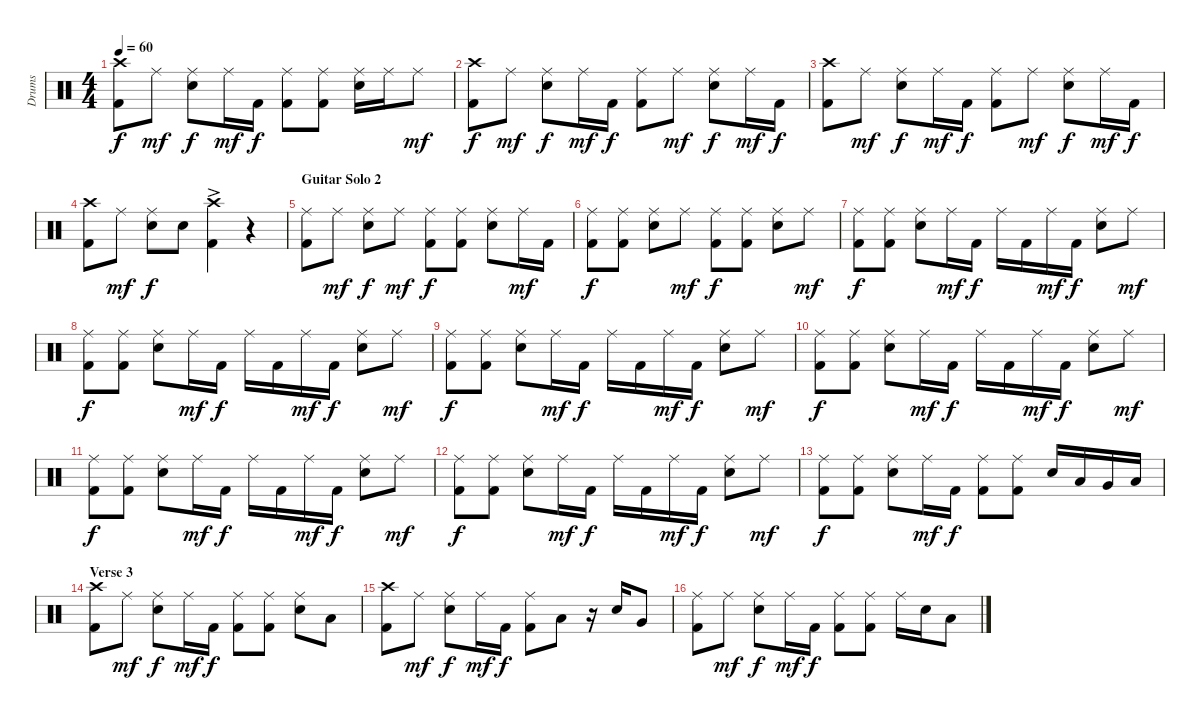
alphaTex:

\track ("Drums" "Drums") {instrument percussion}
\staff {score}
\articulation defaults
\ts (4 4)
\tempo 60
\clef neutral
\ks c
("Crash high (hit)" "Kick (hit) 2").8{dy f} "Ride (middle)".8{dy mf} ("Ride (middle)" "Electric Snare (hit)").8{dy f} "Ride (middle)".16{dy mf} "Kick (hit) 2".16{dy f} ("Ride (middle)" "Kick (hit) 2").8 ("Ride (middle)" "Kick (hit) 2").8 ("Ride (middle)" "Electric Snare (hit)").16 "Ride (middle)".16 "Ride (middle)".8{dy mf} |
("Crash high (hit)" "Kick (hit) 2").8{dy f} "Ride (middle)".8{dy mf} ("Ride (middle)" "Electric Snare (hit)").8{dy f} "Ride (middle)".16{dy mf} "Kick (hit) 2".16{dy f} ("Ride (middle)" "Kick (hit) 2").8 "Ride (middle)".8{dy mf} ("Ride (middle)" "Electric Snare (hit)").8{dy f} "Ride (middle)".16{dy mf} "Kick (hit) 2".16{dy f} |
("Crash high (hit)" "Kick (hit) 2").8 "Ride (middle)".8{dy mf} ("Ride (middle)" "Electric Snare (hit)").8{dy f} "Ride (middle)".16{dy mf} "Kick (hit) 2".16{dy f} ("Ride (middle)" "Kick (hit) 2").8 "Ride (middle)".8{dy mf} ("Ride (middle)" "Electric Snare (hit)").8{dy f} "Ride (middle)".16{dy mf} "Kick (hit) 2".16{dy f} |
("Crash high (hit)" "Kick (hit) 2").8 "Ride (middle)".8{dy mf} ("Ride (middle)" "Electric Snare (hit)").8{dy f} "Electric Snare (hit)".8 ("Crash high (hit)"{ac} "Kick (hit) 2").4 r.4 |
\section ("" "Guitar Solo 2")
("Ride (middle)" "Kick (hit) 2").8 "Ride (middle)".8{dy mf} ("Ride (middle)" "Electric Snare (hit)").8{dy f} "Ride (middle)".8{dy mf} ("Ride (middle)" "Kick (hit) 2").8{dy f} ("Ride (middle)" "Kick (hit) 2").8 ("Ride (middle)" "Electric Snare (hit)").8 "Ride (middle)".16{dy mf} "Kick (hit) 2".16 |
("Ride (middle)" "Kick (hit) 2").8{dy f} ("Ride (middle)" "Kick (hit) 2").8 ("Ride (middle)" "Electric Snare (hit)").8 "Ride (middle)".8{dy mf} ("Ride (middle)" "Kick (hit) 2").8{dy f} ("Ride (middle)" "Kick (hit) 2").8 ("Ride (middle)" "Electric Snare (hit)").8 "Ride (middle)".8{dy mf} |
("Ride (middle)" "Kick (hit) 2").8{dy f} ("Ride (middle)" "Kick (hit) 2").8 ("Ride (middle)" "Electric Snare (hit)").8 "Ride (middle)".16{dy mf} "Kick (hit) 2".16{dy f} "Ride (middle)".16 "Kick (hit) 2".16 "Ride (middle)".16{dy mf} "Kick (hit) 2".16{dy f} ("Ride (middle)" "Electric Snare (hit)").8 "Ride (middle)".8{dy mf} |
("Ride (middle)" "Kick (hit) 2").8{dy f} ("Ride (middle)" "Kick (hit) 2").8 ("Ride (middle)" "Electric Snare (hit)").8 "Ride (middle)".16{dy mf} "Kick (hit) 2".16{dy f} "Ride (middle)".16 "Kick (hit) 2".16 "Ride (middle)".16{dy mf} "Kick (hit) 2".16{dy f} ("Ride (middle)" "Electric Snare (hit)").8 "Ride (middle)".8{dy mf} |
("Ride (middle)" "Kick (hit) 2").8{dy f} ("Ride (middle)" "Kick (hit) 2").8 ("Ride (middle)" "Electric Snare (hit)").8 "Ride (middle)".16{dy mf} "Kick (hit) 2".16{dy f} "Ride (middle)".16 "Kick (hit) 2".16 "Ride (middle)".16{dy mf} "Kick (hit) 2".16{dy f} ("Ride (middle)" "Electric Snare (hit)").8 "Ride (middle)".8{dy mf} |
("Ride (middle)" "Kick (hit) 2").8{dy f} ("Ride (middle)" "Kick (hit) 2").8 ("Ride (middle)" "Electric Snare (hit)").8 "Ride (middle)".16{dy mf} "Kick (hit) 2".16{dy f} "Ride (middle)".16 "Kick (hit) 2".16 "Ride (middle)".16{dy mf} "Kick (hit) 2".16{dy f} ("Ride (middle)" "Electric Snare (hit)").8 "Ride (middle)".8{dy mf} |
("Ride (middle)" "Kick (hit) 2").8{dy f} ("Ride (middle)" "Kick (hit) 2").8 ("Ride (middle)" "Electric Snare (hit)").8 "Ride (middle)".16{dy mf} "Kick (hit) 2".16{dy f} "Ride (middle)".16 "Kick (hit) 2".16 "Ride (middle)".16{dy mf} "Kick (hit) 2".16{dy f} ("Ride (middle)" "Electric Snare (hit)").8 "Ride (middle)".8{dy mf} |
("Ride (middle)" "Kick (hit) 2").8{dy f} ("Ride (middle)" "Kick (hit) 2").8 ("Ride (middle)" "Electric Snare (hit)").8 "Ride (middle)".16{dy mf} "Kick (hit) 2".16{dy f} "Ride (middle)".16 "Kick (hit) 2".16 "Ride (middle)".16{dy mf} "Kick (hit) 2".16{dy f} ("Ride (middle)" "Electric Snare (hit)").8 "Ride (middle)".8{dy mf} |
("Ride (middle)" "Kick (hit) 2").8{dy f} ("Ride (middle)" "Kick (hit) 2").8 ("Ride (middle)" "Electric Snare (hit)").8 "Ride (middle)".16{dy mf} "Kick (hit) 2".16{dy f} ("Ride (middle)" "Kick (hit) 2").8 ("Ride (middle)" "Kick (hit) 2").8 "Electric Snare (hit)".16 "Low Tom (hit)".16 "Very Low Tom (hit)".16 "Low Floor Tom (hit)".16 |
\section ("" "Verse 3")
("Crash high (hit)" "Kick (hit) 2").8 "Ride (middle)".8{dy mf} ("Ride (middle)" "Electric Snare (hit)").8{dy f} "Ride (middle)".16{dy mf} "Kick (hit) 2".16{dy f} ("Ride (middle)" "Kick (hit) 2").8 ("Ride (middle)" "Kick (hit) 2").8 ("Ride (middle)" "Electric Snare (hit)").8 "Low Tom (hit)".8 |
("Crash high (hit)" "Kick (hit) 2").8 "Ride (middle)".8{dy mf} ("Ride (middle)" "Electric Snare (hit)").8{dy f} "Ride (middle)".16{dy mf} "Kick (hit) 2".16{dy f} ("Ride (middle)" "Kick (hit) 2").8 "Low Tom (hit)".8 r.16 "Electric Snare (hit)".16 "Very Low Tom (hit)".8 |
("Ride (middle)" "Kick (hit) 2").8 "Ride (middle)".8{dy mf} ("Ride (middle)" "Electric Snare (hit)").8{dy f} "Ride (middle)".16{dy mf} "Kick (hit) 2".16{dy f} ("Ride (middle)" "Kick (hit) 2").8 ("Ride (middle)" "Kick (hit) 2").8 "Ride (middle)".16 "Electric Snare (hit)".16 "Low Tom (hit)".8
